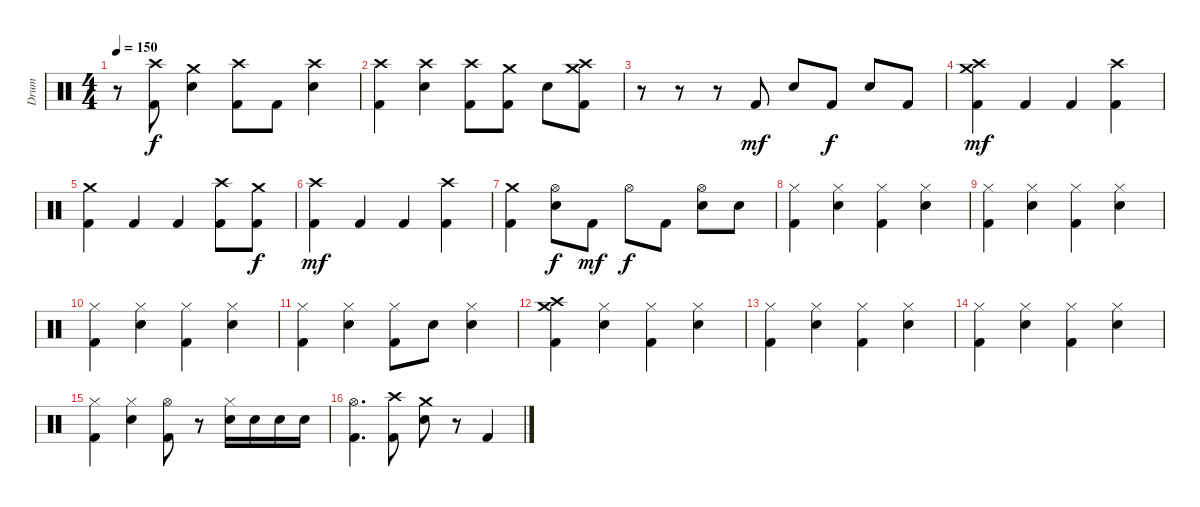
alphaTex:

\track ("Drum" "Drum") {instrument percussion}
\staff {score}
\articulation defaults
\ts (4 4)
\tempo 150
\clef neutral
\ks c
r.8{dy f} ("Crash high (hit)" "Kick (hit) 2").8 ("Crash medium (hit)" "Electric Snare (hit)").4 ("Crash high (hit)" "Kick (hit) 2").8 "Kick (hit) 2".8 ("Crash high (hit)" "Electric Snare (hit)").4 |
("Crash high (hit)" "Kick (hit) 2").4 ("Crash high (hit)" "Electric Snare (hit)").4 ("Crash high (hit)" "Kick (hit) 2").8 ("Crash medium (hit)" "Kick (hit) 2").8 "Electric Snare (hit)".8 ("Crash high (hit)" "Crash medium (hit)" "Kick (hit) 2").8 |
r.8 r.8 r.8 "Kick (hit) 2".8{dy mf} "Electric Snare (hit)".8 "Kick (hit) 2".8{dy f} "Electric Snare (hit)".8 "Kick (hit) 2".8 |
("Crash high (hit)" "Crash medium (hit)" "Kick (hit) 2").4{dy mf} "Kick (hit) 2".4 "Kick (hit) 2".4 ("Crash high (hit)" "Kick (hit) 2").4 |
("Crash medium (hit)" "Kick (hit) 2").4 "Kick (hit) 2".4 "Kick (hit) 2".4 ("Crash high (hit)" "Kick (hit) 2").8 ("Crash medium (hit)" "Kick (hit) 2").8{dy f} |
("Crash high (hit)" "Kick (hit) 2").4{dy mf} "Kick (hit) 2".4 "Kick (hit) 2".4 ("Crash high (hit)" "Kick (hit) 2").4 |
("Crash medium (hit)" "Kick (hit) 2").4 ("Hi-Hat (open)" "Electric Snare (hit)").8{dy f} "Kick (hit) 2".8{dy mf} "Hi-Hat (open)".8{dy f} "Kick (hit) 2".8 ("Hi-Hat (open)" "Electric Snare (hit)").8 "Electric Snare (hit)".8 |
("Hi-Hat (closed)" "Kick (hit) 2").4 ("Hi-Hat (closed)" "Electric Snare (hit)").4 ("Hi-Hat (closed)" "Kick (hit) 2").4 ("Hi-Hat (closed)" "Electric Snare (hit)").4 |
("Hi-Hat (closed)" "Kick (hit) 2").4 ("Hi-Hat (closed)" "Electric Snare (hit)").4 ("Hi-Hat (closed)" "Kick (hit) 2").4 ("Hi-Hat (closed)" "Electric Snare (hit)").4 |
("Hi-Hat (closed)" "Kick (hit) 2").4 ("Hi-Hat (closed)" "Electric Snare (hit)").4 ("Hi-Hat (closed)" "Kick (hit) 2").4 ("Hi-Hat (closed)" "Electric Snare (hit)").4 |
("Hi-Hat (closed)" "Kick (hit) 2").4 ("Hi-Hat (closed)" "Electric Snare (hit)").4 ("Hi-Hat (closed)" "Kick (hit) 2").8 "Electric Snare (hit)".8 ("Hi-Hat (closed)" "Electric Snare (hit)").4 |
("Crash high (hit)" "Crash medium (hit)" "Kick (hit) 2").4 ("Hi-Hat (closed)" "Electric Snare (hit)").4 ("Hi-Hat (closed)" "Kick (hit) 2").4 ("Hi-Hat (closed)" "Electric Snare (hit)").4 |
("Hi-Hat (closed)" "Kick (hit) 2").4 ("Hi-Hat (closed)" "Electric Snare (hit)").4 ("Hi-Hat (closed)" "Kick (hit) 2").4 ("Hi-Hat (closed)" "Electric Snare (hit)").4 |
("Hi-Hat (closed)" "Kick (hit) 2").4 ("Hi-Hat (closed)" "Electric Snare (hit)").4 ("Hi-Hat (closed)" "Kick (hit) 2").4 ("Hi-Hat (closed)" "Electric Snare (hit)").4 |
("Hi-Hat (closed)" "Kick (hit) 2").4 ("Hi-Hat (closed)" "Electric Snare (hit)").4 ("Hi-Hat (open)" "Kick (hit) 2").8 r.8 ("Hi-Hat (closed)" "Electric Snare (hit)").16 "Electric Snare (hit)".16 "Electric Snare (hit)".16 "Electric Snare (hit)".16 |
("Hi-Hat (open)" "Kick (hit) 2").4{d} ("Crash high (hit)" "Kick (hit) 2").8 ("Crash medium (hit)" "Electric Snare (hit)").8 r.8 "Kick (hit) 2".4
